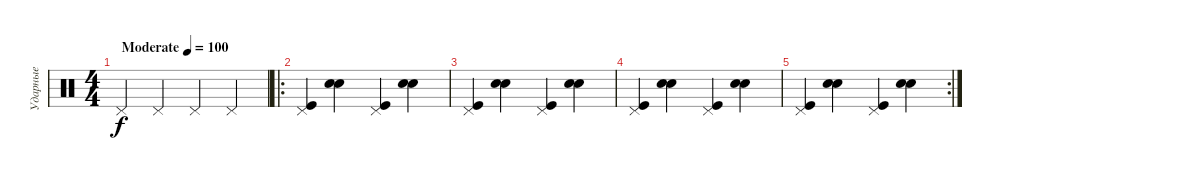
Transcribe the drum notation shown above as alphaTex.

\track ("Ударные" "Ударные") {instrument percussion}
\staff {score}
\articulation defaults
\ts (4 4)
\tempo (100 "Moderate")
\clef neutral
\ks c "Pedal Hi-Hat (hit)".4{dy f} "Pedal Hi-Hat (hit)".4 "Pedal Hi-Hat (hit)".4 "Pedal Hi-Hat (hit)".4
|
\ro
("Pedal Hi-Hat (hit)" "Kick (hit)").4 ("Electric Snare (hit)" "Electric Snare (hit)").4 ("Pedal Hi-Hat (hit)" "Kick (hit)").4 ("Electric Snare (hit)" "Electric Snare (hit)").4 |
("Pedal Hi-Hat (hit)" "Kick (hit)").4 ("Electric Snare (hit)" "Electric Snare (hit)").4 ("Pedal Hi-Hat (hit)" "Kick (hit)").4 ("Electric Snare (hit)" "Electric Snare (hit)").4 |
("Pedal Hi-Hat (hit)" "Kick (hit)").4 ("Electric Snare (hit)" "Electric Snare (hit)").4 ("Pedal Hi-Hat (hit)" "Kick (hit)").4 ("Electric Snare (hit)" "Electric Snare (hit)").4 |
\rc 2
("Pedal Hi-Hat (hit)" "Kick (hit)").4 ("Electric Snare (hit)" "Electric Snare (hit)").4 ("Pedal Hi-Hat (hit)" "Kick (hit)").4 ("Electric Snare (hit)" "Electric Snare (hit)").4
